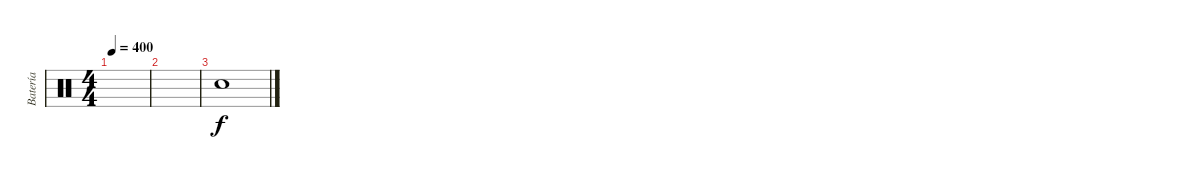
\track ("Batería" "Batería") {instrument percussion}
\staff {score}
\articulation defaults
\ts (4 4)
\tempo 400
\clef neutral
\ks c
|
|
"Snare (hit)".1
